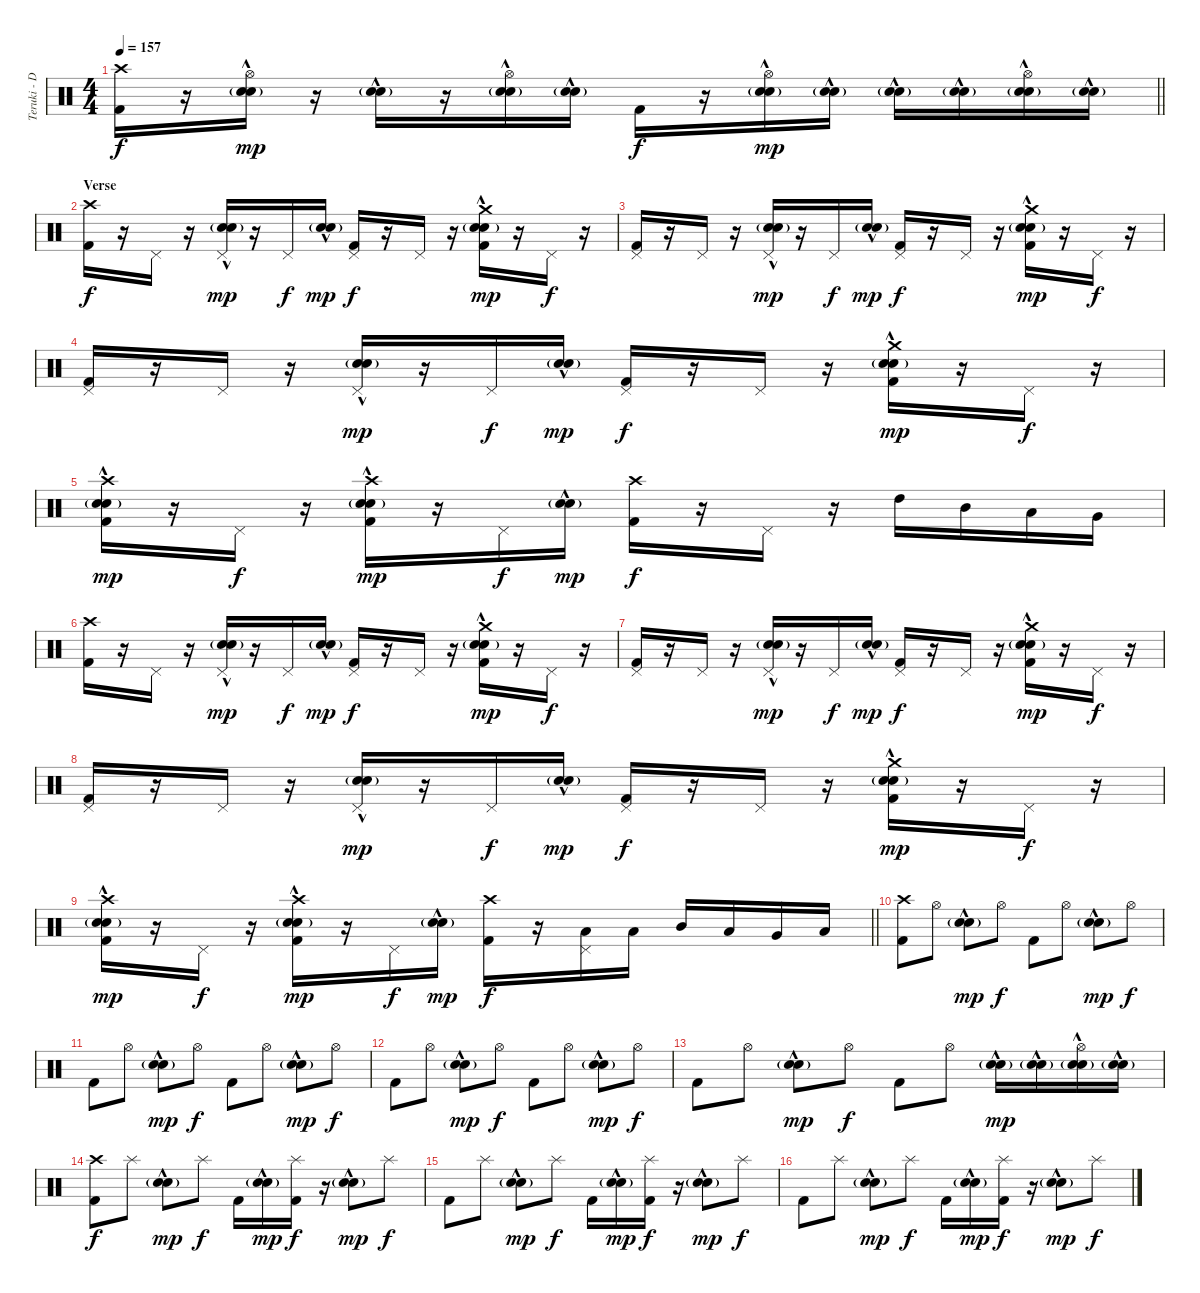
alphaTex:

\track ("Teruki - Drums" "Teruki - D") {instrument percussion}
\staff {score}
\articulation defaults
\ts (4 4)
\tempo 157
\clef neutral
\barLineRight lightlight
\ks c
("Crash high (hit)" "Kick (hit) 2").16{dy f} r.16 ("Hi-Hat (open)" "Electric Snare (hit)"{hac} "Snare (hit) 2"{g}).16{dy mp} r.16 ("Electric Snare (hit)"{hac} "Snare (hit) 2"{g}).16 r.16 ("Hi-Hat (open)" "Electric Snare (hit)"{hac} "Snare (hit) 2"{g}).16 ("Electric Snare (hit)"{hac} "Snare (hit) 2"{g}).16 "Kick (hit) 2".16{dy f} r.16 ("Hi-Hat (open)" "Electric Snare (hit)"{hac} "Snare (hit) 2"{g}).16{dy mp} ("Electric Snare (hit)"{hac} "Snare (hit) 2"{g}).16 ("Electric Snare (hit)"{hac} "Snare (hit) 2"{g}).16 ("Electric Snare (hit)"{hac} "Snare (hit) 2"{g}).16 ("Hi-Hat (open)" "Electric Snare (hit)"{hac} "Snare (hit) 2"{g}).16 ("Electric Snare (hit)"{hac} "Snare (hit) 2"{g}).16 |
\section ("" "Verse")
("Crash high (hit)" "Kick (hit) 2").16{dy f} r.16 "Pedal Hi-Hat (hit)".16 r.16 ("Pedal Hi-Hat (hit)" "Electric Snare (hit)"{hac} "Snare (hit) 2"{g}).16{dy mp} r.16 "Pedal Hi-Hat (hit)".16{dy f} ("Electric Snare (hit)"{hac} "Snare (hit) 2"{g}).16{dy mp} ("Pedal Hi-Hat (hit)" "Kick (hit) 2").16{dy f} r.16 "Pedal Hi-Hat (hit)".16 r.16 ("Crash medium (hit)" "Electric Snare (hit)"{hac} "Snare (hit) 2"{g} "Kick (hit) 2").16{dy mp} r.16 "Pedal Hi-Hat (hit)".16{dy f} r.16 |
("Pedal Hi-Hat (hit)" "Kick (hit) 2").16 r.16 "Pedal Hi-Hat (hit)".16 r.16 ("Pedal Hi-Hat (hit)" "Electric Snare (hit)"{hac} "Snare (hit) 2"{g}).16{dy mp} r.16 "Pedal Hi-Hat (hit)".16{dy f} ("Electric Snare (hit)"{hac} "Snare (hit) 2"{g}).16{dy mp} ("Pedal Hi-Hat (hit)" "Kick (hit) 2").16{dy f} r.16 "Pedal Hi-Hat (hit)".16 r.16 ("Crash medium (hit)" "Electric Snare (hit)"{hac} "Snare (hit) 2"{g} "Kick (hit) 2").16{dy mp} r.16 "Pedal Hi-Hat (hit)".16{dy f} r.16 |
("Pedal Hi-Hat (hit)" "Kick (hit) 2").16 r.16 "Pedal Hi-Hat (hit)".16 r.16 ("Pedal Hi-Hat (hit)" "Electric Snare (hit)"{hac} "Snare (hit) 2"{g}).16{dy mp} r.16 "Pedal Hi-Hat (hit)".16{dy f} ("Electric Snare (hit)"{hac} "Snare (hit) 2"{g}).16{dy mp} ("Pedal Hi-Hat (hit)" "Kick (hit) 2").16{dy f} r.16 "Pedal Hi-Hat (hit)".16 r.16 ("Crash medium (hit)" "Electric Snare (hit)"{hac} "Snare (hit) 2"{g} "Kick (hit) 2").16{dy mp} r.16 "Pedal Hi-Hat (hit)".16{dy f} r.16 |
("Crash high (hit)" "Electric Snare (hit)"{hac} "Snare (hit) 2"{g} "Kick (hit) 2").16{dy mp} r.16 "Pedal Hi-Hat (hit)".16{dy f} r.16 ("Crash high (hit)" "Electric Snare (hit)"{hac} "Snare (hit) 2"{g} "Kick (hit) 2").16{dy mp} r.16 "Pedal Hi-Hat (hit)".16{dy f} ("Electric Snare (hit)"{hac} "Snare (hit) 2"{g}).16{dy mp} ("Crash high (hit)" "Kick (hit) 2").16{dy f} r.16 "Pedal Hi-Hat (hit)".16 r.16 "High Tom (hit)".16 "Mid Tom (hit)".16 "Low Tom (hit)".16 "Very Low Tom (hit)".16 |
("Crash high (hit)" "Kick (hit) 2").16 r.16 "Pedal Hi-Hat (hit)".16 r.16 ("Pedal Hi-Hat (hit)" "Electric Snare (hit)"{hac} "Snare (hit) 2"{g}).16{dy mp} r.16 "Pedal Hi-Hat (hit)".16{dy f} ("Electric Snare (hit)"{hac} "Snare (hit) 2"{g}).16{dy mp} ("Pedal Hi-Hat (hit)" "Kick (hit) 2").16{dy f} r.16 "Pedal Hi-Hat (hit)".16 r.16 ("Crash medium (hit)" "Electric Snare (hit)"{hac} "Snare (hit) 2"{g} "Kick (hit) 2").16{dy mp} r.16 "Pedal Hi-Hat (hit)".16{dy f} r.16 |
("Pedal Hi-Hat (hit)" "Kick (hit) 2").16 r.16 "Pedal Hi-Hat (hit)".16 r.16 ("Pedal Hi-Hat (hit)" "Electric Snare (hit)"{hac} "Snare (hit) 2"{g}).16{dy mp} r.16 "Pedal Hi-Hat (hit)".16{dy f} ("Electric Snare (hit)"{hac} "Snare (hit) 2"{g}).16{dy mp} ("Pedal Hi-Hat (hit)" "Kick (hit) 2").16{dy f} r.16 "Pedal Hi-Hat (hit)".16 r.16 ("Crash medium (hit)" "Electric Snare (hit)"{hac} "Snare (hit) 2"{g} "Kick (hit) 2").16{dy mp} r.16 "Pedal Hi-Hat (hit)".16{dy f} r.16 |
("Pedal Hi-Hat (hit)" "Kick (hit) 2").16 r.16 "Pedal Hi-Hat (hit)".16 r.16 ("Pedal Hi-Hat (hit)" "Electric Snare (hit)"{hac} "Snare (hit) 2"{g}).16{dy mp} r.16 "Pedal Hi-Hat (hit)".16{dy f} ("Electric Snare (hit)"{hac} "Snare (hit) 2"{g}).16{dy mp} ("Pedal Hi-Hat (hit)" "Kick (hit) 2").16{dy f} r.16 "Pedal Hi-Hat (hit)".16 r.16 ("Crash medium (hit)" "Electric Snare (hit)"{hac} "Snare (hit) 2"{g} "Kick (hit) 2").16{dy mp} r.16 "Pedal Hi-Hat (hit)".16{dy f} r.16 |
\barLineRight lightlight
("Crash high (hit)" "Electric Snare (hit)"{hac} "Snare (hit) 2"{g} "Kick (hit) 2").16{dy mp} r.16 "Pedal Hi-Hat (hit)".16{dy f} r.16 ("Crash high (hit)" "Electric Snare (hit)"{hac} "Snare (hit) 2"{g} "Kick (hit) 2").16{dy mp} r.16 "Pedal Hi-Hat (hit)".16{dy f} ("Electric Snare (hit)"{hac} "Snare (hit) 2"{g}).16{dy mp} ("Crash high (hit)" "Kick (hit) 2").16{dy f} r.16 ("Pedal Hi-Hat (hit)" "Low Tom (hit)").16 "Low Tom (hit)".16 "Mid Tom (hit)".16 "Low Tom (hit)".16 "Very Low Tom (hit)".16 "Low Floor Tom (hit)".16 |
\section ("" "")
("Crash high (hit)" "Kick (hit) 2").8 "Hi-Hat (open)".8 ("Electric Snare (hit)"{hac} "Snare (hit) 2"{g}).8{dy mp} "Hi-Hat (open)".8{dy f} "Kick (hit) 2".8 "Hi-Hat (open)".8 ("Electric Snare (hit)"{hac} "Snare (hit) 2"{g}).8{dy mp} "Hi-Hat (open)".8{dy f} |
"Kick (hit) 2".8 "Hi-Hat (open)".8 ("Electric Snare (hit)"{hac} "Snare (hit) 2"{g}).8{dy mp} "Hi-Hat (open)".8{dy f} "Kick (hit) 2".8 "Hi-Hat (open)".8 ("Electric Snare (hit)"{hac} "Snare (hit) 2"{g}).8{dy mp} "Hi-Hat (open)".8{dy f} |
"Kick (hit) 2".8 "Hi-Hat (open)".8 ("Electric Snare (hit)"{hac} "Snare (hit) 2"{g}).8{dy mp} "Hi-Hat (open)".8{dy f} "Kick (hit) 2".8 "Hi-Hat (open)".8 ("Electric Snare (hit)"{hac} "Snare (hit) 2"{g}).8{dy mp} "Hi-Hat (open)".8{dy f} |
"Kick (hit) 2".8 "Hi-Hat (open)".8 ("Electric Snare (hit)"{hac} "Snare (hit) 2"{g}).8{dy mp} "Hi-Hat (open)".8{dy f} "Kick (hit) 2".8 "Hi-Hat (open)".8 ("Electric Snare (hit)"{hac} "Snare (hit) 2"{g}).16{dy mp} ("Electric Snare (hit)"{hac} "Snare (hit) 2"{g}).16 ("Hi-Hat (open)" "Electric Snare (hit)"{hac} "Snare (hit) 2"{g}).16 ("Electric Snare (hit)"{hac} "Snare (hit) 2"{g}).16 |
("Crash high (hit)" "Kick (hit) 2").8{dy f} "Splash (hit)".8 ("Electric Snare (hit)"{hac} "Snare (hit) 2"{g}).8{dy mp} "Splash (hit)".8{dy f} "Kick (hit) 2".16 ("Electric Snare (hit)"{hac} "Snare (hit) 2"{g}).16{dy mp} ("Splash (hit)" "Kick (hit) 2").16{dy f} r.16 ("Electric Snare (hit)"{hac} "Snare (hit) 2"{g}).8{dy mp} "Splash (hit)".8{dy f} |
"Kick (hit) 2".8 "Splash (hit)".8 ("Electric Snare (hit)"{hac} "Snare (hit) 2"{g}).8{dy mp} "Splash (hit)".8{dy f} "Kick (hit) 2".16 ("Electric Snare (hit)"{hac} "Snare (hit) 2"{g}).16{dy mp} ("Splash (hit)" "Kick (hit) 2").16{dy f} r.16 ("Electric Snare (hit)"{hac} "Snare (hit) 2"{g}).8{dy mp} "Splash (hit)".8{dy f} |
"Kick (hit) 2".8 "Splash (hit)".8 ("Electric Snare (hit)"{hac} "Snare (hit) 2"{g}).8{dy mp} "Splash (hit)".8{dy f} "Kick (hit) 2".16 ("Electric Snare (hit)"{hac} "Snare (hit) 2"{g}).16{dy mp} ("Splash (hit)" "Kick (hit) 2").16{dy f} r.16 ("Electric Snare (hit)"{hac} "Snare (hit) 2"{g}).8{dy mp} "Splash (hit)".8{dy f}
